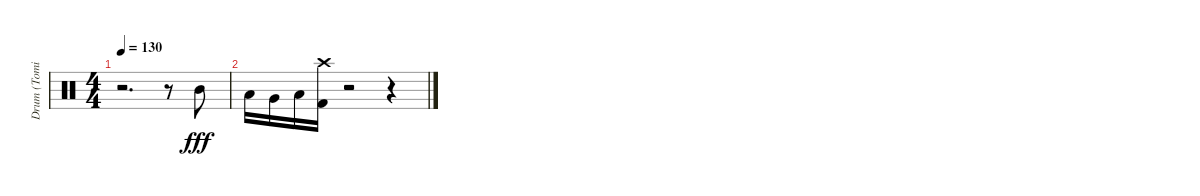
\track ("Drum (Tomi)" "Drum (Tomi") {instrument percussion}
\staff {score}
\articulation defaults
\ts (4 4)
\tempo 130
\clef neutral
\ks c
r.2{d dy fff} r.8 "Mid Tom (hit)".8 |
"Low Tom (hit)".16 "Very Low Tom (hit)".16 "Low Floor Tom (hit)".16 ("Kick (hit) 2" "Crash high (hit)").16 r.2 r.4
